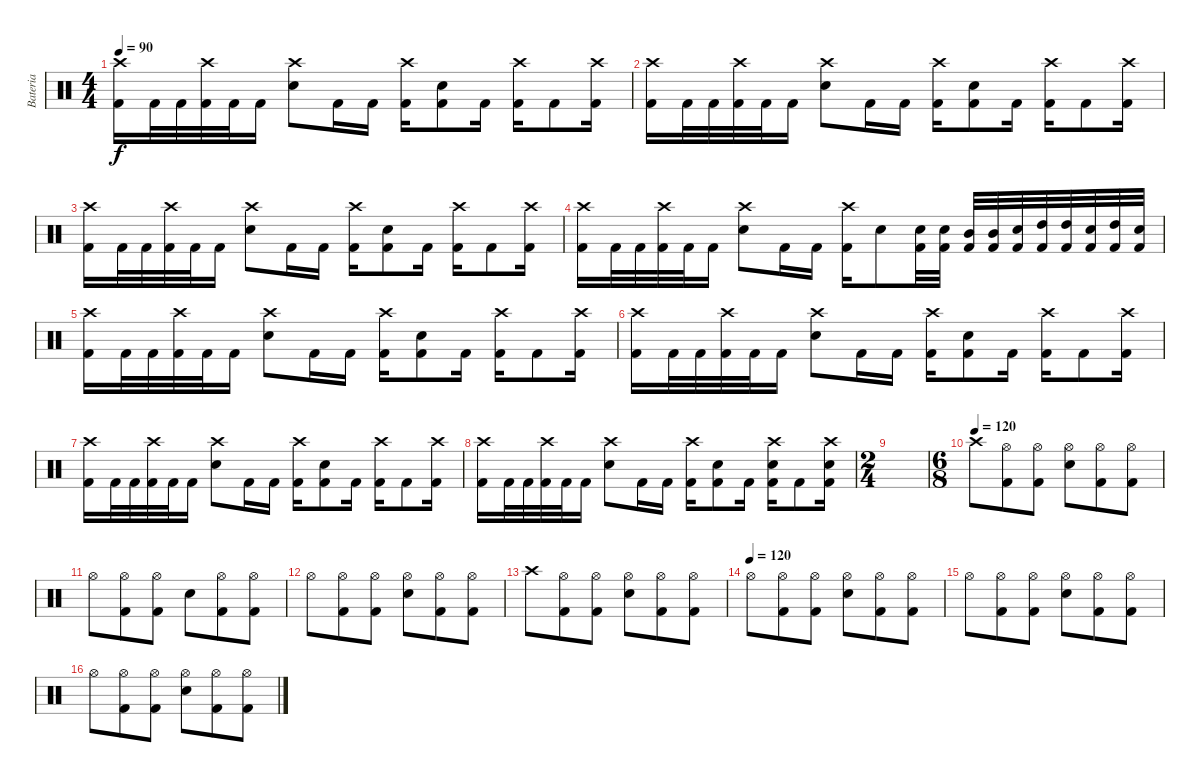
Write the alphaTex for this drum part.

\track ("Bateria" "Bateria") {instrument percussion}
\staff {score}
\articulation defaults
\ts (4 4)
\tempo 90
\clef neutral
\ks c
("Crash high (hit)" "Kick (hit) 2").16{dy f} "Kick (hit) 2".32 "Kick (hit) 2".32 ("Crash high (hit)" "Kick (hit) 2").32 "Kick (hit) 2".32 "Kick (hit) 2".16 ("Crash high (hit)" "Electric Snare (hit)").8 "Kick (hit) 2".16 "Kick (hit) 2".16 ("Crash high (hit)" "Kick (hit) 2").16 ("Kick (hit) 2" "Electric Snare (hit)").8 "Kick (hit) 2".16 ("Crash high (hit)" "Kick (hit) 2").16 "Kick (hit) 2".8 ("Kick (hit) 2" "Crash high (hit)").16 |
("Crash high (hit)" "Kick (hit) 2").16 "Kick (hit) 2".32 "Kick (hit) 2".32 ("Crash high (hit)" "Kick (hit) 2").32 "Kick (hit) 2".32 "Kick (hit) 2".16 ("Crash high (hit)" "Electric Snare (hit)").8 "Kick (hit) 2".16 "Kick (hit) 2".16 ("Crash high (hit)" "Kick (hit) 2").16 ("Kick (hit) 2" "Electric Snare (hit)").8 "Kick (hit) 2".16 ("Crash high (hit)" "Kick (hit) 2").16 "Kick (hit) 2".8 ("Kick (hit) 2" "Crash high (hit)").16 |
("Crash high (hit)" "Kick (hit) 2").16 "Kick (hit) 2".32 "Kick (hit) 2".32 ("Crash high (hit)" "Kick (hit) 2").32 "Kick (hit) 2".32 "Kick (hit) 2".16 ("Crash high (hit)" "Electric Snare (hit)").8 "Kick (hit) 2".16 "Kick (hit) 2".16 ("Crash high (hit)" "Kick (hit) 2").16 ("Kick (hit) 2" "Electric Snare (hit)").8 "Kick (hit) 2".16 ("Crash high (hit)" "Kick (hit) 2").16 "Kick (hit) 2".8 ("Kick (hit) 2" "Crash high (hit)").16 |
("Crash high (hit)" "Kick (hit) 2").16 "Kick (hit) 2".32 "Kick (hit) 2".32 ("Crash high (hit)" "Kick (hit) 2").32 "Kick (hit) 2".32 "Kick (hit) 2".16 ("Crash high (hit)" "Electric Snare (hit)").8 "Kick (hit) 2".16 "Kick (hit) 2".16 ("Crash high (hit)" "Kick (hit) 2").16 "Electric Snare (hit)".8 ("Electric Snare (hit)" "Kick (hit) 2").32 ("Electric Snare (hit)" "Kick (hit) 2").32 ("Mid Tom (hit)" "Kick (hit) 2").32 ("Mid Tom (hit)" "Kick (hit) 2").32 ("Electric Snare (hit)" "Kick (hit) 2").32 ("High Tom (hit)" "Kick (hit) 2").32 ("High Tom (hit)" "Kick (hit) 2").32 ("Electric Snare (hit)" "Kick (hit) 2").32 ("High Tom (hit)" "Kick (hit) 2").32 ("Electric Snare (hit)" "Kick (hit) 2").32 |
("Crash high (hit)" "Kick (hit) 2").16 "Kick (hit) 2".32 "Kick (hit) 2".32 ("Crash high (hit)" "Kick (hit) 2").32 "Kick (hit) 2".32 "Kick (hit) 2".16 ("Crash high (hit)" "Electric Snare (hit)").8 "Kick (hit) 2".16 "Kick (hit) 2".16 ("Crash high (hit)" "Kick (hit) 2").16 ("Kick (hit) 2" "Electric Snare (hit)").8 "Kick (hit) 2".16 ("Crash high (hit)" "Kick (hit) 2").16 "Kick (hit) 2".8 ("Kick (hit) 2" "Crash high (hit)").16 |
("Crash high (hit)" "Kick (hit) 2").16 "Kick (hit) 2".32 "Kick (hit) 2".32 ("Crash high (hit)" "Kick (hit) 2").32 "Kick (hit) 2".32 "Kick (hit) 2".16 ("Crash high (hit)" "Electric Snare (hit)").8 "Kick (hit) 2".16 "Kick (hit) 2".16 ("Crash high (hit)" "Kick (hit) 2").16 ("Kick (hit) 2" "Electric Snare (hit)").8 "Kick (hit) 2".16 ("Crash high (hit)" "Kick (hit) 2").16 "Kick (hit) 2".8 ("Kick (hit) 2" "Crash high (hit)").16 |
("Crash high (hit)" "Kick (hit) 2").16 "Kick (hit) 2".32 "Kick (hit) 2".32 ("Crash high (hit)" "Kick (hit) 2").32 "Kick (hit) 2".32 "Kick (hit) 2".16 ("Crash high (hit)" "Electric Snare (hit)").8 "Kick (hit) 2".16 "Kick (hit) 2".16 ("Crash high (hit)" "Kick (hit) 2").16 ("Kick (hit) 2" "Electric Snare (hit)").8 "Kick (hit) 2".16 ("Crash high (hit)" "Kick (hit) 2").16 "Kick (hit) 2".8 ("Kick (hit) 2" "Crash high (hit)").16 |
("Crash high (hit)" "Kick (hit) 2").16 "Kick (hit) 2".32 "Kick (hit) 2".32 ("Crash high (hit)" "Kick (hit) 2").32 "Kick (hit) 2".32 "Kick (hit) 2".16 ("Crash high (hit)" "Electric Snare (hit)").8 "Kick (hit) 2".16 "Kick (hit) 2".16 ("Crash high (hit)" "Kick (hit) 2").16 ("Kick (hit) 2" "Electric Snare (hit)").8 "Kick (hit) 2".16 ("Electric Snare (hit)" "Kick (hit) 2" "Crash high (hit)").16 "Kick (hit) 2".8 ("Kick (hit) 2" "Crash high (hit)" "Electric Snare (hit)").16 |
\ts (2 4)
|
\ts (6 8)
\tempo (120)
"Crash high (hit)".8 ("Hi-Hat (open)" "Kick (hit) 2").8 ("Hi-Hat (open)" "Kick (hit) 2").8 ("Hi-Hat (open)" "Electric Snare (hit)").8 ("Hi-Hat (open)" "Kick (hit) 2").8 ("Hi-Hat (open)" "Kick (hit) 2").8 |
"Hi-Hat (open)".8 ("Hi-Hat (open)" "Kick (hit) 2").8 ("Hi-Hat (open)" "Kick (hit) 2").8 "Electric Snare (hit)".8 ("Hi-Hat (open)" "Kick (hit) 2").8 ("Hi-Hat (open)" "Kick (hit) 2").8 |
"Hi-Hat (open)".8 ("Hi-Hat (open)" "Kick (hit) 2").8 ("Hi-Hat (open)" "Kick (hit) 2").8 ("Hi-Hat (open)" "Electric Snare (hit)").8 ("Hi-Hat (open)" "Kick (hit) 2").8 ("Hi-Hat (open)" "Kick (hit) 2").8 |
"Crash high (hit)".8 ("Hi-Hat (open)" "Kick (hit) 2").8 ("Hi-Hat (open)" "Kick (hit) 2").8 ("Hi-Hat (open)" "Electric Snare (hit)").8 ("Hi-Hat (open)" "Kick (hit) 2").8 ("Hi-Hat (open)" "Kick (hit) 2").8 |
\tempo (120)
"Hi-Hat (open)".8 ("Hi-Hat (open)" "Kick (hit) 2").8 ("Hi-Hat (open)" "Kick (hit) 2").8 ("Hi-Hat (open)" "Electric Snare (hit)").8 ("Hi-Hat (open)" "Kick (hit) 2").8 ("Hi-Hat (open)" "Kick (hit) 2").8 |
"Hi-Hat (open)".8 ("Hi-Hat (open)" "Kick (hit) 2").8 ("Hi-Hat (open)" "Kick (hit) 2").8 ("Hi-Hat (open)" "Electric Snare (hit)").8 ("Hi-Hat (open)" "Kick (hit) 2").8 ("Hi-Hat (open)" "Kick (hit) 2").8 |
"Hi-Hat (open)".8 ("Hi-Hat (open)" "Kick (hit) 2").8 ("Hi-Hat (open)" "Kick (hit) 2").8 ("Hi-Hat (open)" "Electric Snare (hit)").8 ("Hi-Hat (open)" "Kick (hit) 2").8 ("Hi-Hat (open)" "Kick (hit) 2").8
